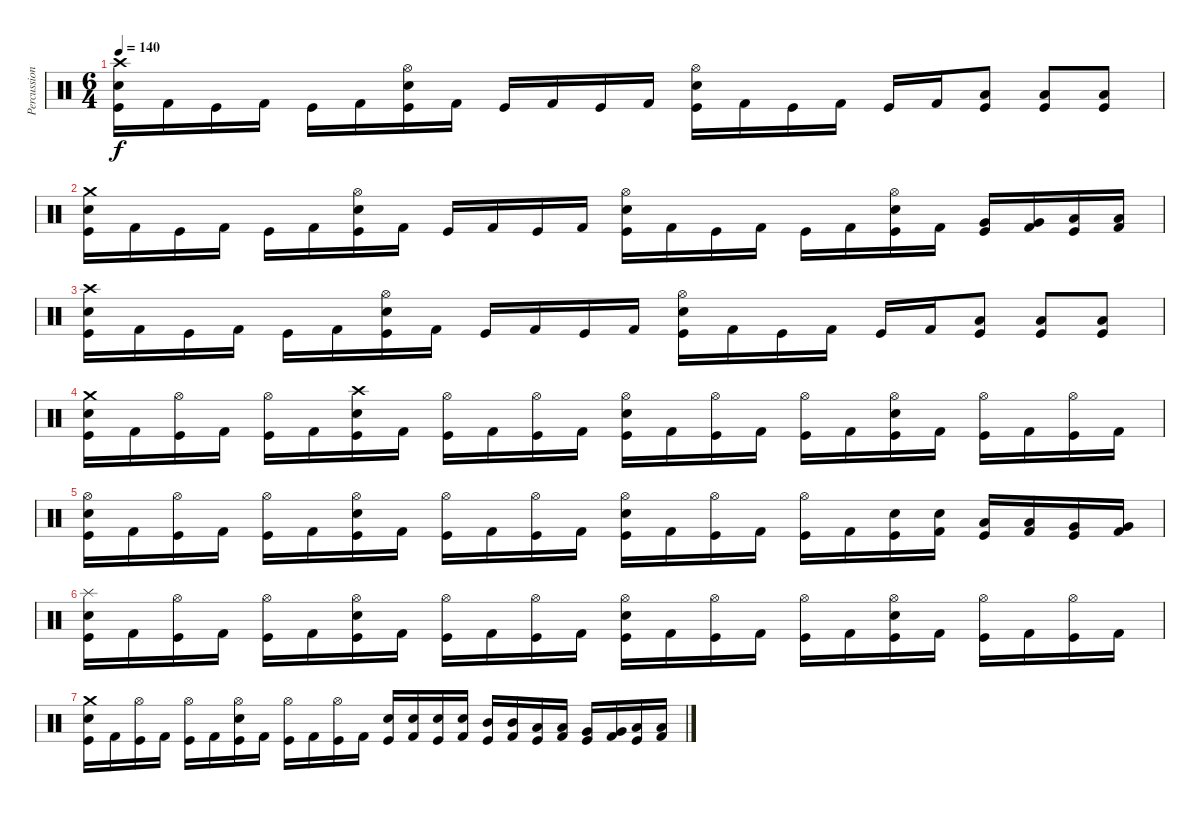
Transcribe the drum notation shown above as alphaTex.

\track ("Percussion" "Percussion") {instrument percussion}
\staff {score}
\articulation defaults
\ts (6 4)
\tempo 140
\clef neutral
\ks c
("Crash high (hit)" "Electric Snare (hit)" "Kick (hit)").16{dy f} "Kick (hit) 2".16 "Kick (hit)".16 "Kick (hit) 2".16 "Kick (hit)".16 "Kick (hit) 2".16 ("Hi-Hat (open)" "Electric Snare (hit)" "Kick (hit)").16 "Kick (hit) 2".16 "Kick (hit)".16 "Kick (hit) 2".16 "Kick (hit)".16 "Kick (hit) 2".16 ("Hi-Hat (open)" "Electric Snare (hit)" "Kick (hit)").16 "Kick (hit) 2".16 "Kick (hit)".16 "Kick (hit) 2".16 "Kick (hit)".16 "Kick (hit) 2".16 ("Low Floor Tom (hit)" "Kick (hit)").8 ("Low Floor Tom (hit)" "Kick (hit)").8 ("Low Floor Tom (hit)" "Kick (hit)").8 |
("Crash medium (hit)" "Electric Snare (hit)" "Kick (hit)").16 "Kick (hit) 2".16 "Kick (hit)".16 "Kick (hit) 2".16 "Kick (hit)".16 "Kick (hit) 2".16 ("Hi-Hat (open)" "Electric Snare (hit)" "Kick (hit)").16 "Kick (hit) 2".16 "Kick (hit)".16 "Kick (hit) 2".16 "Kick (hit)".16 "Kick (hit) 2".16 ("Hi-Hat (open)" "Electric Snare (hit)" "Kick (hit)").16 "Kick (hit) 2".16 "Kick (hit)".16 "Kick (hit) 2".16 "Kick (hit)".16 "Kick (hit) 2".16 ("Hi-Hat (open)" "Electric Snare (hit)" "Kick (hit)").16 "Kick (hit) 2".16 ("Very Low Tom (hit)" "Kick (hit)").16 ("Very Low Tom (hit)" "Kick (hit) 2").16 ("Low Floor Tom (hit)" "Kick (hit)").16 ("Low Floor Tom (hit)" "Kick (hit) 2").16 |
("Crash high (hit)" "Electric Snare (hit)" "Kick (hit)").16 "Kick (hit) 2".16 "Kick (hit)".16 "Kick (hit) 2".16 "Kick (hit)".16 "Kick (hit) 2".16 ("Hi-Hat (open)" "Electric Snare (hit)" "Kick (hit)").16 "Kick (hit) 2".16 "Kick (hit)".16 "Kick (hit) 2".16 "Kick (hit)".16 "Kick (hit) 2".16 ("Hi-Hat (open)" "Electric Snare (hit)" "Kick (hit)").16 "Kick (hit) 2".16 "Kick (hit)".16 "Kick (hit) 2".16 "Kick (hit)".16 "Kick (hit) 2".16 ("Low Floor Tom (hit)" "Kick (hit)").8 ("Low Floor Tom (hit)" "Kick (hit)").8 ("Low Floor Tom (hit)" "Kick (hit)").8 |
("Crash medium (hit)" "Electric Snare (hit)" "Kick (hit)").16 "Kick (hit) 2".16 ("Hi-Hat (open)" "Kick (hit)").16 "Kick (hit) 2".16 ("Hi-Hat (open)" "Kick (hit)").16 "Kick (hit) 2".16 ("Crash high (hit)" "Electric Snare (hit)" "Kick (hit)").16 "Kick (hit) 2".16 ("Hi-Hat (open)" "Kick (hit)").16 "Kick (hit) 2".16 ("Hi-Hat (open)" "Kick (hit)").16 "Kick (hit) 2".16 ("Hi-Hat (open)" "Electric Snare (hit)" "Kick (hit)").16 "Kick (hit) 2".16 ("Hi-Hat (open)" "Kick (hit)").16 "Kick (hit) 2".16 ("Hi-Hat (open)" "Kick (hit)").16 "Kick (hit) 2".16 ("Hi-Hat (open)" "Electric Snare (hit)" "Kick (hit)").16 "Kick (hit) 2".16 ("Hi-Hat (open)" "Kick (hit)").16 "Kick (hit) 2".16 ("Hi-Hat (open)" "Kick (hit)").16 "Kick (hit) 2".16 |
("Hi-Hat (open)" "Electric Snare (hit)" "Kick (hit)").16 "Kick (hit) 2".16 ("Hi-Hat (open)" "Kick (hit)").16 "Kick (hit) 2".16 ("Hi-Hat (open)" "Kick (hit)").16 "Kick (hit) 2".16 ("Hi-Hat (open)" "Electric Snare (hit)" "Kick (hit)").16 "Kick (hit) 2".16 ("Hi-Hat (open)" "Kick (hit)").16 "Kick (hit) 2".16 ("Hi-Hat (open)" "Kick (hit)").16 "Kick (hit) 2".16 ("Hi-Hat (open)" "Electric Snare (hit)" "Kick (hit)").16 "Kick (hit) 2".16 ("Hi-Hat (open)" "Kick (hit)").16 "Kick (hit) 2".16 ("Hi-Hat (open)" "Kick (hit)").16 "Kick (hit) 2".16 ("Electric Snare (hit)" "Kick (hit)").16 ("Electric Snare (hit)" "Kick (hit) 2").16 ("Low Tom (hit)" "Kick (hit)").16 ("Low Tom (hit)" "Kick (hit) 2").16 ("Very Low Tom (hit)" "Kick (hit)").16 ("Very Low Tom (hit)" "Kick (hit) 2").16 |
("Splash (hit)" "Electric Snare (hit)" "Kick (hit)").16 "Kick (hit) 2".16 ("Hi-Hat (open)" "Kick (hit)").16 "Kick (hit) 2".16 ("Hi-Hat (open)" "Kick (hit)").16 "Kick (hit) 2".16 ("Hi-Hat (open)" "Electric Snare (hit)" "Kick (hit)").16 "Kick (hit) 2".16 ("Hi-Hat (open)" "Kick (hit)").16 "Kick (hit) 2".16 ("Hi-Hat (open)" "Kick (hit)").16 "Kick (hit) 2".16 ("Hi-Hat (open)" "Electric Snare (hit)" "Kick (hit)").16 "Kick (hit) 2".16 ("Hi-Hat (open)" "Kick (hit)").16 "Kick (hit) 2".16 ("Hi-Hat (open)" "Kick (hit)").16 "Kick (hit) 2".16 ("Hi-Hat (open)" "Electric Snare (hit)" "Kick (hit)").16 "Kick (hit) 2".16 ("Hi-Hat (open)" "Kick (hit)").16 "Kick (hit) 2".16 ("Hi-Hat (open)" "Kick (hit)").16 "Kick (hit) 2".16 |
("Crash medium (hit)" "Electric Snare (hit)" "Kick (hit)").16 "Kick (hit) 2".16 ("Hi-Hat (open)" "Kick (hit)").16 "Kick (hit) 2".16 ("Hi-Hat (open)" "Kick (hit)").16 "Kick (hit) 2".16 ("Hi-Hat (open)" "Electric Snare (hit)" "Kick (hit)").16 "Kick (hit) 2".16 ("Hi-Hat (open)" "Kick (hit)").16 "Kick (hit) 2".16 ("Hi-Hat (open)" "Kick (hit)").16 "Kick (hit) 2".16 ("Electric Snare (hit)" "Kick (hit)").16 ("Electric Snare (hit)" "Kick (hit) 2").16 ("Electric Snare (hit)" "Kick (hit)").16 ("Electric Snare (hit)" "Kick (hit) 2").16 ("Mid Tom (hit)" "Kick (hit)").16 ("Mid Tom (hit)" "Kick (hit) 2").16 ("Low Tom (hit)" "Kick (hit)").16 ("Low Tom (hit)" "Kick (hit) 2").16 ("Very Low Tom (hit)" "Kick (hit)").16 ("Very Low Tom (hit)" "Kick (hit) 2").16 ("Low Floor Tom (hit)" "Kick (hit)").16 ("Low Floor Tom (hit)" "Kick (hit) 2").16
